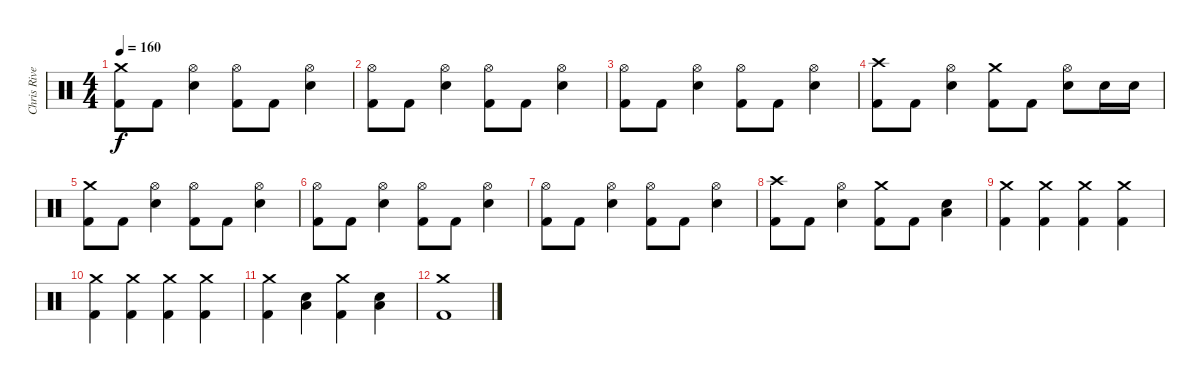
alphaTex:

\track ("Chris Rivers" "Chris Rive") {instrument percussion}
\staff {score}
\articulation defaults
\ts (4 4)
\tempo 160
\clef neutral
\ks c
("Crash medium (hit)" "Kick (hit) 2").8{dy f} "Kick (hit) 2".8 ("Hi-Hat (open)" "Electric Snare (hit)").4 ("Hi-Hat (open)" "Kick (hit) 2").8 "Kick (hit) 2".8 ("Hi-Hat (open)" "Electric Snare (hit)").4 |
("Hi-Hat (open)" "Kick (hit) 2").8 "Kick (hit) 2".8 ("Hi-Hat (open)" "Electric Snare (hit)").4 ("Hi-Hat (open)" "Kick (hit) 2").8 "Kick (hit) 2".8 ("Hi-Hat (open)" "Electric Snare (hit)").4 |
("Hi-Hat (open)" "Kick (hit) 2").8 "Kick (hit) 2".8 ("Hi-Hat (open)" "Electric Snare (hit)").4 ("Hi-Hat (open)" "Kick (hit) 2").8 "Kick (hit) 2".8 ("Hi-Hat (open)" "Electric Snare (hit)").4 |
("Crash high (hit)" "Kick (hit) 2").8 "Kick (hit) 2".8 ("Hi-Hat (open)" "Electric Snare (hit)").4 ("Crash medium (hit)" "Kick (hit) 2").8 "Kick (hit) 2".8 ("Hi-Hat (open)" "Electric Snare (hit)").8 "Electric Snare (hit)".16 "Electric Snare (hit)".16 |
("Crash medium (hit)" "Kick (hit) 2").8 "Kick (hit) 2".8 ("Hi-Hat (open)" "Electric Snare (hit)").4 ("Hi-Hat (open)" "Kick (hit) 2").8 "Kick (hit) 2".8 ("Hi-Hat (open)" "Electric Snare (hit)").4 |
("Hi-Hat (open)" "Kick (hit) 2").8 "Kick (hit) 2".8 ("Hi-Hat (open)" "Electric Snare (hit)").4 ("Hi-Hat (open)" "Kick (hit) 2").8 "Kick (hit) 2".8 ("Hi-Hat (open)" "Electric Snare (hit)").4 |
("Hi-Hat (open)" "Kick (hit) 2").8 "Kick (hit) 2".8 ("Hi-Hat (open)" "Electric Snare (hit)").4 ("Hi-Hat (open)" "Kick (hit) 2").8 "Kick (hit) 2".8 ("Hi-Hat (open)" "Electric Snare (hit)").4 |
("Crash high (hit)" "Kick (hit) 2").8 "Kick (hit) 2".8 ("Hi-Hat (open)" "Electric Snare (hit)").4 ("Crash medium (hit)" "Kick (hit) 2").8 "Kick (hit) 2".8 ("Low Floor Tom (hit)" "Snare (hit) 2").4 |
("Crash medium (hit)" "Kick (hit) 2").4 ("Crash medium (hit)" "Kick (hit) 2").4 ("Crash medium (hit)" "Kick (hit) 2").4 ("Crash medium (hit)" "Kick (hit) 2").4 |
("Crash medium (hit)" "Kick (hit) 2").4 ("Crash medium (hit)" "Kick (hit) 2").4 ("Crash medium (hit)" "Kick (hit) 2").4 ("Crash medium (hit)" "Kick (hit) 2").4 |
("Crash medium (hit)" "Kick (hit) 2").4 ("Low Floor Tom (hit)" "Snare (hit) 2").4 ("Crash medium (hit)" "Kick (hit) 2").4 ("Low Floor Tom (hit)" "Snare (hit) 2").4 |
("Crash medium (hit)" "Kick (hit) 2").1
